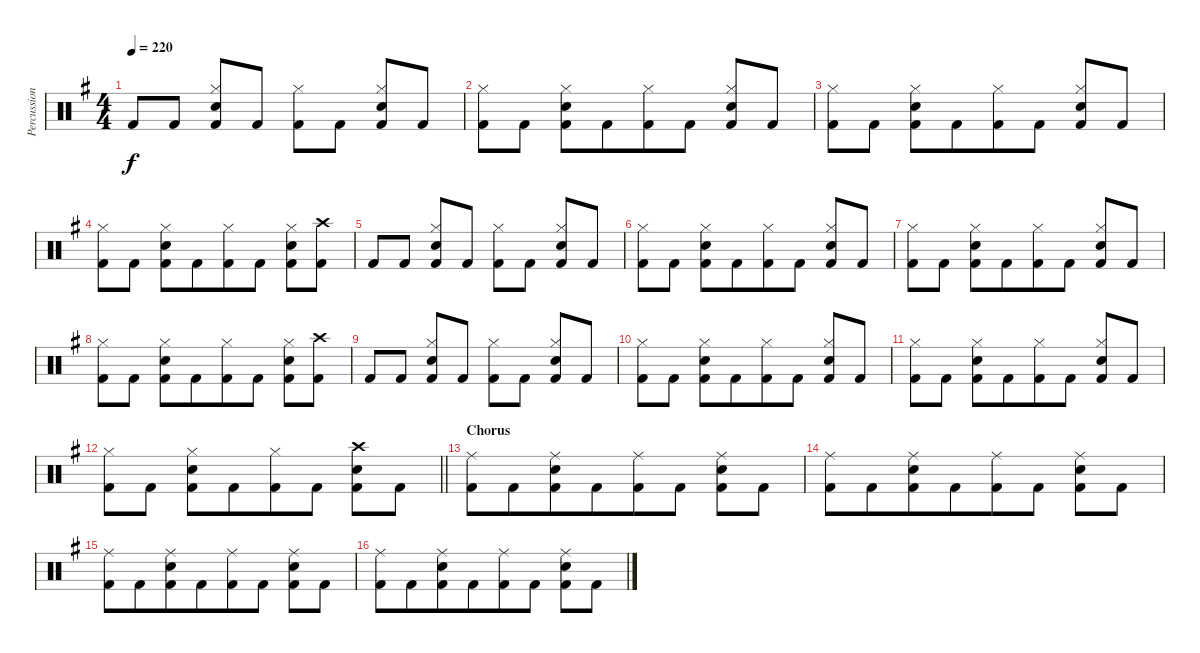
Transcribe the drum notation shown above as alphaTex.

\track ("Percussion" "Percussion") {instrument percussion}
\staff {score}
\articulation defaults
\ts (4 4)
\tempo 220
\clef neutral
\ks eminor "Kick (hit) 2".8{dy f beam merge} "Kick (hit) 2".8
("Hi-Hat (closed)" "Snare (hit) 2" "Kick (hit) 2").8 "Kick (hit) 2".8 ("Hi-Hat (closed)" "Kick (hit) 2").8 "Kick (hit) 2".8 ("Hi-Hat (closed)" "Snare (hit) 2" "Kick (hit) 2").8{beam merge} "Kick (hit) 2".8 |
("Hi-Hat (closed)" "Kick (hit) 2").8 "Kick (hit) 2".8 ("Hi-Hat (closed)" "Snare (hit) 2" "Kick (hit) 2").8{beam merge} "Kick (hit) 2".8{beam merge} ("Hi-Hat (closed)" "Kick (hit) 2").8{beam merge} "Kick (hit) 2".8 ("Hi-Hat (closed)" "Snare (hit) 2" "Kick (hit) 2").8 "Kick (hit) 2".8 |
("Hi-Hat (closed)" "Kick (hit) 2").8 "Kick (hit) 2".8 ("Hi-Hat (closed)" "Snare (hit) 2" "Kick (hit) 2").8{beam merge} "Kick (hit) 2".8{beam merge} ("Hi-Hat (closed)" "Kick (hit) 2").8{beam merge} "Kick (hit) 2".8 ("Hi-Hat (closed)" "Snare (hit) 2" "Kick (hit) 2").8 "Kick (hit) 2".8 |
("Hi-Hat (closed)" "Kick (hit) 2").8 "Kick (hit) 2".8 ("Hi-Hat (closed)" "Snare (hit) 2" "Kick (hit) 2").8{beam merge} "Kick (hit) 2".8{beam merge} ("Hi-Hat (closed)" "Kick (hit) 2").8{beam merge} "Kick (hit) 2".8 ("Hi-Hat (closed)" "Snare (hit) 2" "Kick (hit) 2").8 ("Crash high (hit)" "Kick (hit) 2").8 |
"Kick (hit) 2".8{beam merge} "Kick (hit) 2".8 ("Hi-Hat (closed)" "Snare (hit) 2" "Kick (hit) 2").8 "Kick (hit) 2".8 ("Hi-Hat (closed)" "Kick (hit) 2").8 "Kick (hit) 2".8 ("Hi-Hat (closed)" "Snare (hit) 2" "Kick (hit) 2").8{beam merge} "Kick (hit) 2".8 |
("Hi-Hat (closed)" "Kick (hit) 2").8 "Kick (hit) 2".8 ("Hi-Hat (closed)" "Snare (hit) 2" "Kick (hit) 2").8{beam merge} "Kick (hit) 2".8{beam merge} ("Hi-Hat (closed)" "Kick (hit) 2").8{beam merge} "Kick (hit) 2".8 ("Hi-Hat (closed)" "Snare (hit) 2" "Kick (hit) 2").8 "Kick (hit) 2".8 |
("Hi-Hat (closed)" "Kick (hit) 2").8 "Kick (hit) 2".8 ("Hi-Hat (closed)" "Snare (hit) 2" "Kick (hit) 2").8{beam merge} "Kick (hit) 2".8{beam merge} ("Hi-Hat (closed)" "Kick (hit) 2").8{beam merge} "Kick (hit) 2".8 ("Hi-Hat (closed)" "Snare (hit) 2" "Kick (hit) 2").8 "Kick (hit) 2".8 |
("Hi-Hat (closed)" "Kick (hit) 2").8 "Kick (hit) 2".8 ("Hi-Hat (closed)" "Snare (hit) 2" "Kick (hit) 2").8{beam merge} "Kick (hit) 2".8{beam merge} ("Hi-Hat (closed)" "Kick (hit) 2").8{beam merge} "Kick (hit) 2".8 ("Hi-Hat (closed)" "Snare (hit) 2" "Kick (hit) 2").8 ("Crash high (hit)" "Kick (hit) 2").8 |
"Kick (hit) 2".8{beam merge} "Kick (hit) 2".8 ("Hi-Hat (closed)" "Snare (hit) 2" "Kick (hit) 2").8 "Kick (hit) 2".8 ("Hi-Hat (closed)" "Kick (hit) 2").8 "Kick (hit) 2".8 ("Hi-Hat (closed)" "Snare (hit) 2" "Kick (hit) 2").8{beam merge} "Kick (hit) 2".8 |
("Hi-Hat (closed)" "Kick (hit) 2").8 "Kick (hit) 2".8 ("Hi-Hat (closed)" "Snare (hit) 2" "Kick (hit) 2").8{beam merge} "Kick (hit) 2".8{beam merge} ("Hi-Hat (closed)" "Kick (hit) 2").8{beam merge} "Kick (hit) 2".8 ("Hi-Hat (closed)" "Snare (hit) 2" "Kick (hit) 2").8 "Kick (hit) 2".8 |
("Hi-Hat (closed)" "Kick (hit) 2").8 "Kick (hit) 2".8 ("Hi-Hat (closed)" "Snare (hit) 2" "Kick (hit) 2").8{beam merge} "Kick (hit) 2".8{beam merge} ("Hi-Hat (closed)" "Kick (hit) 2").8{beam merge} "Kick (hit) 2".8 ("Hi-Hat (closed)" "Snare (hit) 2" "Kick (hit) 2").8 "Kick (hit) 2".8 |
\barLineRight lightlight
("Hi-Hat (closed)" "Kick (hit) 2").8 "Kick (hit) 2".8 ("Hi-Hat (closed)" "Snare (hit) 2" "Kick (hit) 2").8{beam merge} "Kick (hit) 2".8{beam merge} ("Hi-Hat (closed)" "Kick (hit) 2").8{beam merge} "Kick (hit) 2".8 ("Crash high (hit)" "Snare (hit) 2" "Kick (hit) 2").8 "Kick (hit) 2".8 |
\section ("" "Chorus")
("Ride (middle)" "Kick (hit) 2").8 "Kick (hit) 2".8{beam merge} ("Ride (middle)" "Snare (hit) 2" "Kick (hit) 2").8{beam merge} "Kick (hit) 2".8{beam merge} ("Ride (middle)" "Kick (hit) 2").8{beam merge} "Kick (hit) 2".8 ("Ride (middle)" "Snare (hit) 2" "Kick (hit) 2").8 "Kick (hit) 2".8 |
("Ride (middle)" "Kick (hit) 2").8 "Kick (hit) 2".8{beam merge} ("Ride (middle)" "Snare (hit) 2" "Kick (hit) 2").8{beam merge} "Kick (hit) 2".8{beam merge} ("Ride (middle)" "Kick (hit) 2").8{beam merge} "Kick (hit) 2".8 ("Ride (middle)" "Snare (hit) 2" "Kick (hit) 2").8 "Kick (hit) 2".8 |
("Ride (middle)" "Kick (hit) 2").8 "Kick (hit) 2".8{beam merge} ("Ride (middle)" "Snare (hit) 2" "Kick (hit) 2").8{beam merge} "Kick (hit) 2".8{beam merge} ("Ride (middle)" "Kick (hit) 2").8{beam merge} "Kick (hit) 2".8 ("Ride (middle)" "Snare (hit) 2" "Kick (hit) 2").8 "Kick (hit) 2".8 |
("Ride (middle)" "Kick (hit) 2").8 "Kick (hit) 2".8{beam merge} ("Ride (middle)" "Snare (hit) 2" "Kick (hit) 2").8{beam merge} "Kick (hit) 2".8{beam merge} ("Ride (middle)" "Kick (hit) 2").8{beam merge} "Kick (hit) 2".8 ("Ride (middle)" "Snare (hit) 2" "Kick (hit) 2").8 "Kick (hit) 2".8
